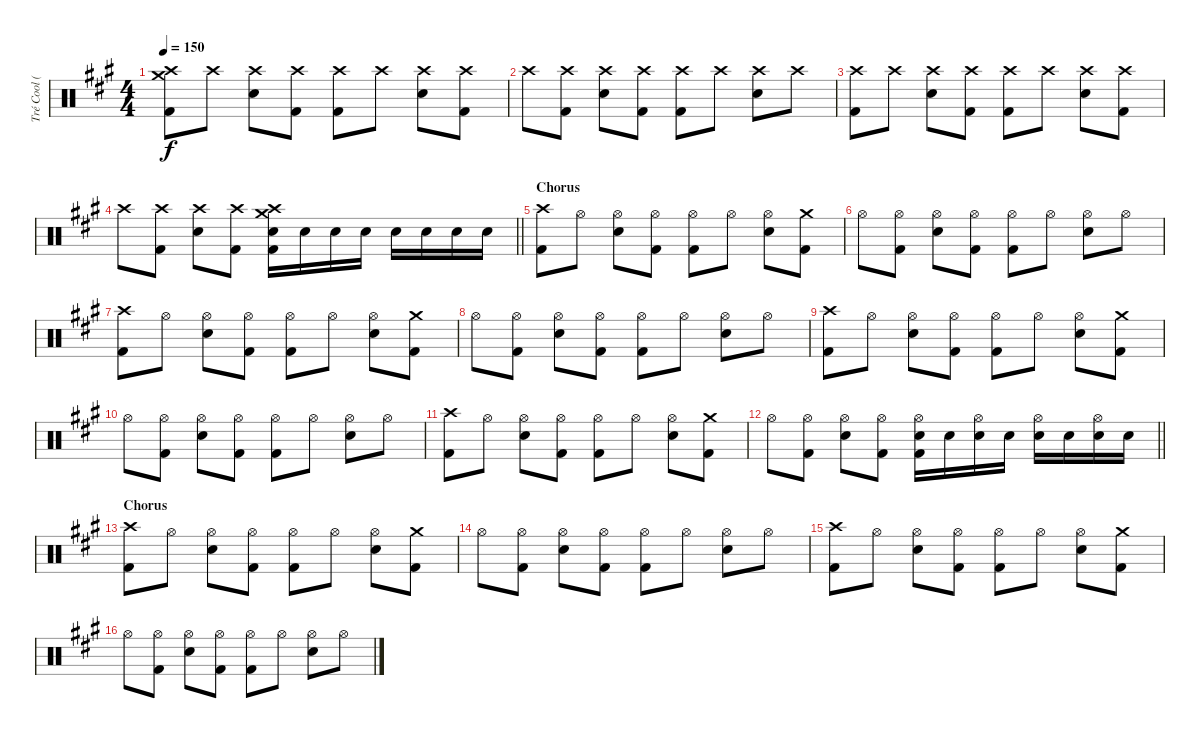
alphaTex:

\track ("Tré Cool (Drums)" "Tré Cool (") {instrument percussion}
\staff {score}
\articulation defaults
\ts (4 4)
\tempo 150
\clef neutral
\ks a
("Crash high (hit)" "Crash medium (hit)" "Kick (hit) 2").8{dy f} "Crash high (hit)".8 ("Crash high (hit)" "Snare (hit) 2").8 ("Crash high (hit)" "Kick (hit) 2").8 ("Crash high (hit)" "Kick (hit) 2").8 "Crash high (hit)".8 ("Crash high (hit)" "Snare (hit) 2").8 ("Crash high (hit)" "Kick (hit) 2").8 |
"Crash high (hit)".8 ("Crash high (hit)" "Kick (hit) 2").8 ("Crash high (hit)" "Snare (hit) 2").8 ("Crash high (hit)" "Kick (hit) 2").8 ("Crash high (hit)" "Kick (hit) 2").8 "Crash high (hit)".8 ("Crash high (hit)" "Snare (hit) 2").8 "Crash high (hit)".8 |
("Crash high (hit)" "Kick (hit) 2").8 "Crash high (hit)".8 ("Crash high (hit)" "Snare (hit) 2").8 ("Crash high (hit)" "Kick (hit) 2").8 ("Crash high (hit)" "Kick (hit) 2").8 "Crash high (hit)".8 ("Crash high (hit)" "Snare (hit) 2").8 ("Crash high (hit)" "Kick (hit) 2").8 |
\barLineRight lightlight "Crash high (hit)".8
("Crash high (hit)" "Kick (hit) 2").8 ("Crash high (hit)" "Snare (hit) 2").8 ("Crash high (hit)" "Kick (hit) 2").8 ("Crash high (hit)" "Crash medium (hit)" "Snare (hit) 2" "Kick (hit) 2").16 "Snare (hit) 2".16 "Snare (hit) 2".16 "Snare (hit) 2".16 "Snare (hit) 2".16 "Snare (hit) 2".16 "Snare (hit) 2".16 "Snare (hit) 2".16 |
\section ("" "Chorus")
("Crash high (hit)" "Kick (hit) 2").8 "Hi-Hat (open)".8 ("Hi-Hat (open)" "Snare (hit) 2").8 ("Hi-Hat (open)" "Kick (hit) 2").8 ("Hi-Hat (open)" "Kick (hit) 2").8 "Hi-Hat (open)".8 ("Hi-Hat (open)" "Snare (hit) 2").8 ("Crash medium (hit)" "Kick (hit) 2").8 |
"Hi-Hat (open)".8 ("Hi-Hat (open)" "Kick (hit) 2").8 ("Hi-Hat (open)" "Snare (hit) 2").8 ("Hi-Hat (open)" "Kick (hit) 2").8 ("Hi-Hat (open)" "Kick (hit) 2").8 "Hi-Hat (open)".8 ("Hi-Hat (open)" "Snare (hit) 2").8 "Hi-Hat (open)".8 |
("Crash high (hit)" "Kick (hit) 2").8 "Hi-Hat (open)".8 ("Hi-Hat (open)" "Snare (hit) 2").8 ("Hi-Hat (open)" "Kick (hit) 2").8 ("Hi-Hat (open)" "Kick (hit) 2").8 "Hi-Hat (open)".8 ("Hi-Hat (open)" "Snare (hit) 2").8 ("Crash medium (hit)" "Kick (hit) 2").8 |
"Hi-Hat (open)".8 ("Hi-Hat (open)" "Kick (hit) 2").8 ("Hi-Hat (open)" "Snare (hit) 2").8 ("Hi-Hat (open)" "Kick (hit) 2").8 ("Hi-Hat (open)" "Kick (hit) 2").8 "Hi-Hat (open)".8 ("Hi-Hat (open)" "Snare (hit) 2").8 "Hi-Hat (open)".8 |
("Crash high (hit)" "Kick (hit) 2").8 "Hi-Hat (open)".8 ("Hi-Hat (open)" "Snare (hit) 2").8 ("Hi-Hat (open)" "Kick (hit) 2").8 ("Hi-Hat (open)" "Kick (hit) 2").8 "Hi-Hat (open)".8 ("Hi-Hat (open)" "Snare (hit) 2").8 ("Crash medium (hit)" "Kick (hit) 2").8 |
"Hi-Hat (open)".8 ("Hi-Hat (open)" "Kick (hit) 2").8 ("Hi-Hat (open)" "Snare (hit) 2").8 ("Hi-Hat (open)" "Kick (hit) 2").8 ("Hi-Hat (open)" "Kick (hit) 2").8 "Hi-Hat (open)".8 ("Hi-Hat (open)" "Snare (hit) 2").8 "Hi-Hat (open)".8 |
("Crash high (hit)" "Kick (hit) 2").8 "Hi-Hat (open)".8 ("Hi-Hat (open)" "Snare (hit) 2").8 ("Hi-Hat (open)" "Kick (hit) 2").8 ("Hi-Hat (open)" "Kick (hit) 2").8 "Hi-Hat (open)".8 ("Hi-Hat (open)" "Snare (hit) 2").8 ("Crash medium (hit)" "Kick (hit) 2").8 |
\barLineRight lightlight "Hi-Hat (open)".8
("Hi-Hat (open)" "Kick (hit) 2").8 ("Hi-Hat (open)" "Snare (hit) 2").8 ("Hi-Hat (open)" "Kick (hit) 2").8 ("Hi-Hat (open)" "Snare (hit) 2" "Kick (hit) 2").16 "Snare (hit) 2".16 ("Hi-Hat (open)" "Snare (hit) 2").16 "Snare (hit) 2".16 ("Hi-Hat (open)" "Snare (hit) 2").16 "Snare (hit) 2".16 ("Hi-Hat (open)" "Snare (hit) 2").16 "Snare (hit) 2".16 |
\section ("" "Chorus")
("Crash high (hit)" "Kick (hit) 2").8 "Hi-Hat (open)".8 ("Hi-Hat (open)" "Snare (hit) 2").8 ("Hi-Hat (open)" "Kick (hit) 2").8 ("Hi-Hat (open)" "Kick (hit) 2").8 "Hi-Hat (open)".8 ("Hi-Hat (open)" "Snare (hit) 2").8 ("Crash medium (hit)" "Kick (hit) 2").8 |
"Hi-Hat (open)".8 ("Hi-Hat (open)" "Kick (hit) 2").8 ("Hi-Hat (open)" "Snare (hit) 2").8 ("Hi-Hat (open)" "Kick (hit) 2").8 ("Hi-Hat (open)" "Kick (hit) 2").8 "Hi-Hat (open)".8 ("Hi-Hat (open)" "Snare (hit) 2").8 "Hi-Hat (open)".8 |
("Crash high (hit)" "Kick (hit) 2").8 "Hi-Hat (open)".8 ("Hi-Hat (open)" "Snare (hit) 2").8 ("Hi-Hat (open)" "Kick (hit) 2").8 ("Hi-Hat (open)" "Kick (hit) 2").8 "Hi-Hat (open)".8 ("Hi-Hat (open)" "Snare (hit) 2").8 ("Crash medium (hit)" "Kick (hit) 2").8 |
"Hi-Hat (open)".8 ("Hi-Hat (open)" "Kick (hit) 2").8 ("Hi-Hat (open)" "Snare (hit) 2").8 ("Hi-Hat (open)" "Kick (hit) 2").8 ("Hi-Hat (open)" "Kick (hit) 2").8 "Hi-Hat (open)".8 ("Hi-Hat (open)" "Snare (hit) 2").8 "Hi-Hat (open)".8
